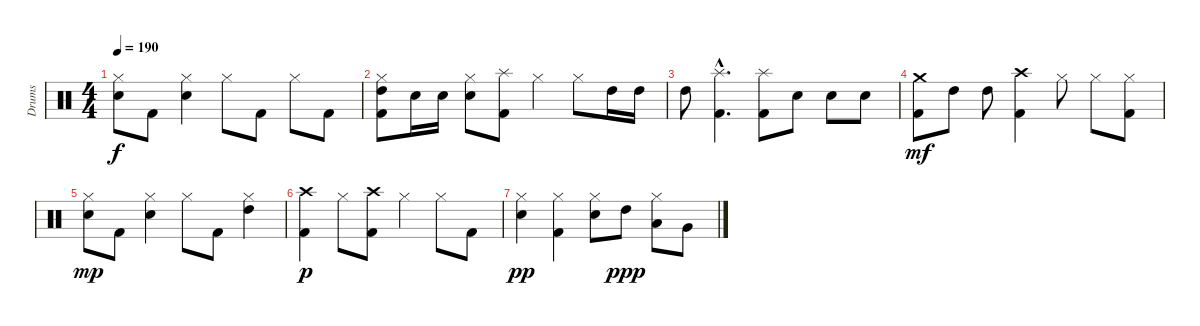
\track ("Drums" "Drums") {instrument percussion}
\staff {score}
\articulation defaults
\ts (4 4)
\tempo 190
\clef neutral
\ks c
("Hi-Hat (closed)" "Snare (hit) 2").8{dy f} "Kick (hit) 2".8 ("Hi-Hat (closed)" "Snare (hit) 2").4 "Hi-Hat (closed)".8 "Kick (hit) 2".8 "Hi-Hat (closed)".8 "Kick (hit) 2".8 |
("Hi-Hat (closed)" "High Tom (hit)" "Kick (hit) 2").8 "Snare (hit) 2".16 "Snare (hit) 2".16 ("Hi-Hat (closed)" "Snare (hit) 2").8 ("Splash (hit)" "Kick (hit) 2").8 "Hi-Hat (closed)".4 "Hi-Hat (closed)".8 "High Tom (hit)".16 "High Tom (hit)".16 |
"High Tom (hit)".8 ("Splash (hit)"{hac} "Kick (hit) 2"{hac}).4{d} ("Splash (hit)" "Kick (hit) 2").8 "Snare (hit) 2".8 "Snare (hit) 2".8 "Snare (hit) 2".8 |
("Crash medium (hit)" "Kick (hit) 2").8{dy mf} "High Tom (hit)".8 "High Tom (hit)".8 ("Crash high (hit)" "Kick (hit) 2").4 "Hi-Hat (closed)".8 "Hi-Hat (closed)".8 ("Hi-Hat (closed)" "Kick (hit) 2").8 |
("Hi-Hat (closed)" "Snare (hit) 2").8{dy mp} "Kick (hit) 2".8 ("Hi-Hat (closed)" "Snare (hit) 2").4 "Hi-Hat (closed)".8 "Kick (hit) 2".8 ("Hi-Hat (closed)" "High Tom (hit)").4 |
("Crash high (hit)" "Kick (hit) 2").4{dy p} "Hi-Hat (closed)".8 ("Crash high (hit)" "Kick (hit) 2").8 "Hi-Hat (closed)".4 "Hi-Hat (closed)".8 "Kick (hit) 2".8 |
("Hi-Hat (closed)" "Snare (hit) 2").4{dy pp} ("Hi-Hat (closed)" "Kick (hit) 2").4 ("Hi-Hat (closed)" "Snare (hit) 2").8 "High Tom (hit)".8{dy ppp} ("Hi-Hat (closed)" "Low Tom (hit)").8 "Very Low Tom (hit)".8
